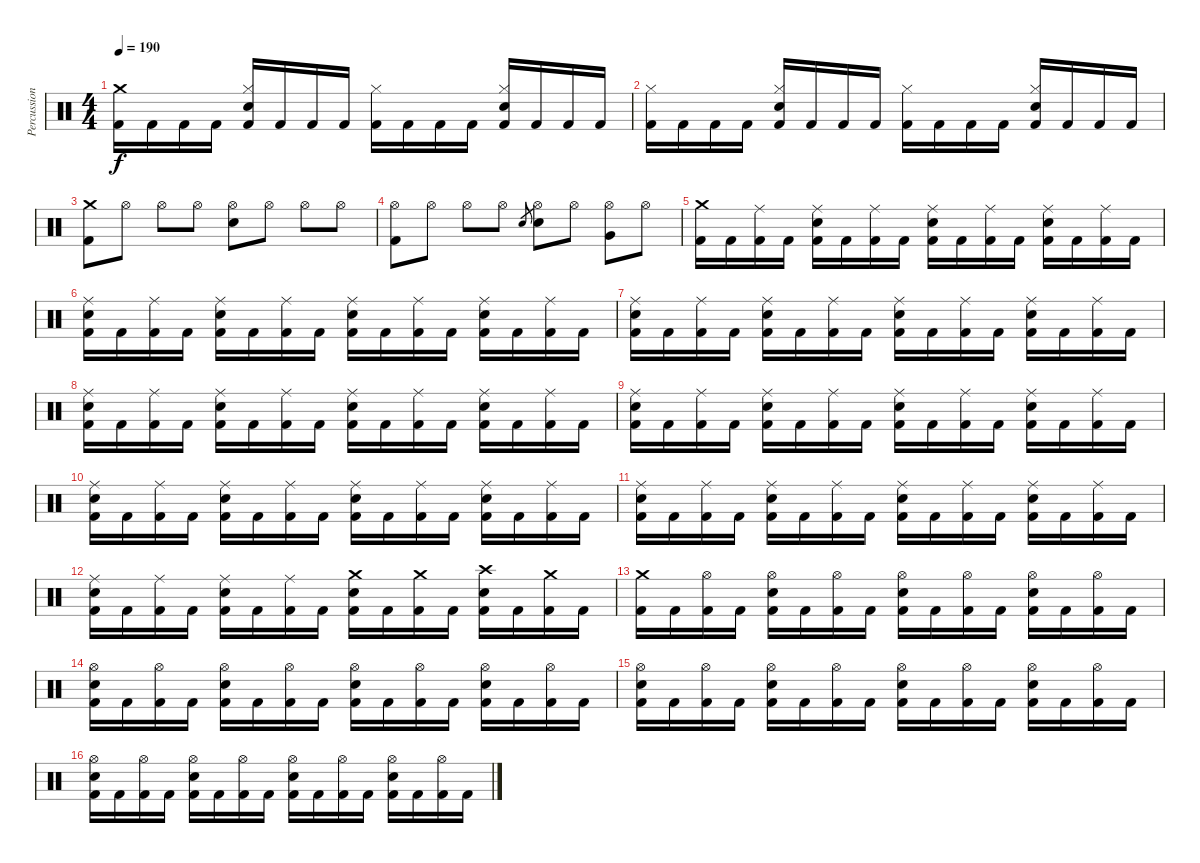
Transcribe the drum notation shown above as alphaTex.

\track ("Percussions" "Percussion") {instrument percussion}
\staff {score}
\articulation defaults
\ts (4 4)
\tempo 190
\clef neutral
\ks c
("Crash medium (hit)" "Kick (hit) 2").16{dy f} "Kick (hit) 2".16 "Kick (hit) 2".16 "Kick (hit) 2".16 ("Hi-Hat (closed)" "Electric Snare (hit)" "Kick (hit) 2").16 "Kick (hit) 2".16 "Kick (hit) 2".16 "Kick (hit) 2".16 ("Hi-Hat (closed)" "Kick (hit) 2").16 "Kick (hit) 2".16 "Kick (hit) 2".16 "Kick (hit) 2".16 ("Hi-Hat (closed)" "Electric Snare (hit)" "Kick (hit) 2").16 "Kick (hit) 2".16 "Kick (hit) 2".16 "Kick (hit) 2".16 |
("Hi-Hat (closed)" "Kick (hit) 2").16 "Kick (hit) 2".16 "Kick (hit) 2".16 "Kick (hit) 2".16 ("Hi-Hat (closed)" "Electric Snare (hit)" "Kick (hit) 2").16 "Kick (hit) 2".16 "Kick (hit) 2".16 "Kick (hit) 2".16 ("Hi-Hat (closed)" "Kick (hit) 2").16 "Kick (hit) 2".16 "Kick (hit) 2".16 "Kick (hit) 2".16 ("Hi-Hat (closed)" "Electric Snare (hit)" "Kick (hit) 2").16 "Kick (hit) 2".16 "Kick (hit) 2".16 "Kick (hit) 2".16 |
("Crash medium (hit)" "Kick (hit) 2").8 "Hi-Hat (open)".8 "Hi-Hat (open)".8 "Hi-Hat (open)".8 ("Hi-Hat (open)" "Electric Snare (hit)").8 "Hi-Hat (open)".8 "Hi-Hat (open)".8 "Hi-Hat (open)".8 |
("Hi-Hat (open)" "Kick (hit) 2").8 "Hi-Hat (open)".8 "Hi-Hat (open)".8 "Hi-Hat (open)".8 "Electric Snare (hit)".8{gr} ("Hi-Hat (open)" "Electric Snare (hit)").8 "Hi-Hat (open)".8 ("Hi-Hat (open)" "Very Low Tom (hit)").8 "Hi-Hat (open)".8 |
("Crash medium (hit)" "Kick (hit) 2").16 "Kick (hit) 2".16 ("Ride (middle)" "Kick (hit) 2").16 "Kick (hit) 2".16 ("Ride (middle)" "Electric Snare (hit)" "Kick (hit) 2").16 "Kick (hit) 2".16 ("Ride (middle)" "Kick (hit) 2").16 "Kick (hit) 2".16 ("Ride (middle)" "Electric Snare (hit)" "Kick (hit) 2").16 "Kick (hit) 2".16 ("Ride (middle)" "Kick (hit) 2").16 "Kick (hit) 2".16 ("Ride (middle)" "Electric Snare (hit)" "Kick (hit) 2").16 "Kick (hit) 2".16 ("Ride (middle)" "Kick (hit) 2").16 "Kick (hit) 2".16 |
("Ride (middle)" "Electric Snare (hit)" "Kick (hit) 2").16 "Kick (hit) 2".16 ("Ride (middle)" "Kick (hit) 2").16 "Kick (hit) 2".16 ("Ride (middle)" "Electric Snare (hit)" "Kick (hit) 2").16 "Kick (hit) 2".16 ("Ride (middle)" "Kick (hit) 2").16 "Kick (hit) 2".16 ("Ride (middle)" "Electric Snare (hit)" "Kick (hit) 2").16 "Kick (hit) 2".16 ("Ride (middle)" "Kick (hit) 2").16 "Kick (hit) 2".16 ("Ride (middle)" "Electric Snare (hit)" "Kick (hit) 2").16 "Kick (hit) 2".16 ("Ride (middle)" "Kick (hit) 2").16 "Kick (hit) 2".16 |
("Ride (middle)" "Electric Snare (hit)" "Kick (hit) 2").16 "Kick (hit) 2".16 ("Ride (middle)" "Kick (hit) 2").16 "Kick (hit) 2".16 ("Ride (middle)" "Electric Snare (hit)" "Kick (hit) 2").16 "Kick (hit) 2".16 ("Ride (middle)" "Kick (hit) 2").16 "Kick (hit) 2".16 ("Ride (middle)" "Electric Snare (hit)" "Kick (hit) 2").16 "Kick (hit) 2".16 ("Ride (middle)" "Kick (hit) 2").16 "Kick (hit) 2".16 ("Ride (middle)" "Electric Snare (hit)" "Kick (hit) 2").16 "Kick (hit) 2".16 ("Ride (middle)" "Kick (hit) 2").16 "Kick (hit) 2".16 |
("Ride (middle)" "Electric Snare (hit)" "Kick (hit) 2").16 "Kick (hit) 2".16 ("Ride (middle)" "Kick (hit) 2").16 "Kick (hit) 2".16 ("Ride (middle)" "Electric Snare (hit)" "Kick (hit) 2").16 "Kick (hit) 2".16 ("Ride (middle)" "Kick (hit) 2").16 "Kick (hit) 2".16 ("Ride (middle)" "Electric Snare (hit)" "Kick (hit) 2").16 "Kick (hit) 2".16 ("Ride (middle)" "Kick (hit) 2").16 "Kick (hit) 2".16 ("Ride (middle)" "Electric Snare (hit)" "Kick (hit) 2").16 "Kick (hit) 2".16 ("Ride (middle)" "Kick (hit) 2").16 "Kick (hit) 2".16 |
("Ride (middle)" "Electric Snare (hit)" "Kick (hit) 2").16 "Kick (hit) 2".16 ("Ride (middle)" "Kick (hit) 2").16 "Kick (hit) 2".16 ("Ride (middle)" "Electric Snare (hit)" "Kick (hit) 2").16 "Kick (hit) 2".16 ("Ride (middle)" "Kick (hit) 2").16 "Kick (hit) 2".16 ("Ride (middle)" "Electric Snare (hit)" "Kick (hit) 2").16 "Kick (hit) 2".16 ("Ride (middle)" "Kick (hit) 2").16 "Kick (hit) 2".16 ("Ride (middle)" "Electric Snare (hit)" "Kick (hit) 2").16 "Kick (hit) 2".16 ("Ride (middle)" "Kick (hit) 2").16 "Kick (hit) 2".16 |
("Ride (middle)" "Electric Snare (hit)" "Kick (hit) 2").16 "Kick (hit) 2".16 ("Ride (middle)" "Kick (hit) 2").16 "Kick (hit) 2".16 ("Ride (middle)" "Electric Snare (hit)" "Kick (hit) 2").16 "Kick (hit) 2".16 ("Ride (middle)" "Kick (hit) 2").16 "Kick (hit) 2".16 ("Ride (middle)" "Electric Snare (hit)" "Kick (hit) 2").16 "Kick (hit) 2".16 ("Ride (middle)" "Kick (hit) 2").16 "Kick (hit) 2".16 ("Ride (middle)" "Electric Snare (hit)" "Kick (hit) 2").16 "Kick (hit) 2".16 ("Ride (middle)" "Kick (hit) 2").16 "Kick (hit) 2".16 |
("Ride (middle)" "Electric Snare (hit)" "Kick (hit) 2").16 "Kick (hit) 2".16 ("Ride (middle)" "Kick (hit) 2").16 "Kick (hit) 2".16 ("Ride (middle)" "Electric Snare (hit)" "Kick (hit) 2").16 "Kick (hit) 2".16 ("Ride (middle)" "Kick (hit) 2").16 "Kick (hit) 2".16 ("Ride (middle)" "Electric Snare (hit)" "Kick (hit) 2").16 "Kick (hit) 2".16 ("Ride (middle)" "Kick (hit) 2").16 "Kick (hit) 2".16 ("Ride (middle)" "Electric Snare (hit)" "Kick (hit) 2").16 "Kick (hit) 2".16 ("Ride (middle)" "Kick (hit) 2").16 "Kick (hit) 2".16 |
("Ride (middle)" "Electric Snare (hit)" "Kick (hit) 2").16 "Kick (hit) 2".16 ("Ride (middle)" "Kick (hit) 2").16 "Kick (hit) 2".16 ("Ride (middle)" "Electric Snare (hit)" "Kick (hit) 2").16 "Kick (hit) 2".16 ("Ride (middle)" "Kick (hit) 2").16 "Kick (hit) 2".16 ("Crash medium (hit)" "Electric Snare (hit)" "Kick (hit) 2").16 "Kick (hit) 2".16 ("Crash medium (hit)" "Kick (hit) 2").16 "Kick (hit) 2".16 ("Crash high (hit)" "Electric Snare (hit)" "Kick (hit) 2").16 "Kick (hit) 2".16 ("Crash medium (hit)" "Kick (hit) 2").16 "Kick (hit) 2".16 |
("Crash medium (hit)" "Kick (hit) 2").16 "Kick (hit) 2".16 ("Hi-Hat (open)" "Kick (hit) 2").16 "Kick (hit) 2".16 ("Hi-Hat (open)" "Electric Snare (hit)" "Kick (hit) 2").16 "Kick (hit) 2".16 ("Hi-Hat (open)" "Kick (hit) 2").16 "Kick (hit) 2".16 ("Hi-Hat (open)" "Electric Snare (hit)" "Kick (hit) 2").16 "Kick (hit) 2".16 ("Hi-Hat (open)" "Kick (hit) 2").16 "Kick (hit) 2".16 ("Hi-Hat (open)" "Electric Snare (hit)" "Kick (hit) 2").16 "Kick (hit) 2".16 ("Hi-Hat (open)" "Kick (hit) 2").16 "Kick (hit) 2".16 |
("Hi-Hat (open)" "Electric Snare (hit)" "Kick (hit) 2").16 "Kick (hit) 2".16 ("Hi-Hat (open)" "Kick (hit) 2").16 "Kick (hit) 2".16 ("Hi-Hat (open)" "Electric Snare (hit)" "Kick (hit) 2").16 "Kick (hit) 2".16 ("Hi-Hat (open)" "Kick (hit) 2").16 "Kick (hit) 2".16 ("Hi-Hat (open)" "Electric Snare (hit)" "Kick (hit) 2").16 "Kick (hit) 2".16 ("Hi-Hat (open)" "Kick (hit) 2").16 "Kick (hit) 2".16 ("Hi-Hat (open)" "Electric Snare (hit)" "Kick (hit) 2").16 "Kick (hit) 2".16 ("Hi-Hat (open)" "Kick (hit) 2").16 "Kick (hit) 2".16 |
("Hi-Hat (open)" "Electric Snare (hit)" "Kick (hit) 2").16 "Kick (hit) 2".16 ("Hi-Hat (open)" "Kick (hit) 2").16 "Kick (hit) 2".16 ("Hi-Hat (open)" "Electric Snare (hit)" "Kick (hit) 2").16 "Kick (hit) 2".16 ("Hi-Hat (open)" "Kick (hit) 2").16 "Kick (hit) 2".16 ("Hi-Hat (open)" "Electric Snare (hit)" "Kick (hit) 2").16 "Kick (hit) 2".16 ("Hi-Hat (open)" "Kick (hit) 2").16 "Kick (hit) 2".16 ("Hi-Hat (open)" "Electric Snare (hit)" "Kick (hit) 2").16 "Kick (hit) 2".16 ("Hi-Hat (open)" "Kick (hit) 2").16 "Kick (hit) 2".16 |
("Hi-Hat (open)" "Electric Snare (hit)" "Kick (hit) 2").16 "Kick (hit) 2".16 ("Hi-Hat (open)" "Kick (hit) 2").16 "Kick (hit) 2".16 ("Hi-Hat (open)" "Electric Snare (hit)" "Kick (hit) 2").16 "Kick (hit) 2".16 ("Hi-Hat (open)" "Kick (hit) 2").16 "Kick (hit) 2".16 ("Hi-Hat (open)" "Electric Snare (hit)" "Kick (hit) 2").16 "Kick (hit) 2".16 ("Hi-Hat (open)" "Kick (hit) 2").16 "Kick (hit) 2".16 ("Hi-Hat (open)" "Electric Snare (hit)" "Kick (hit) 2").16 "Kick (hit) 2".16 ("Hi-Hat (open)" "Kick (hit) 2").16 "Kick (hit) 2".16
